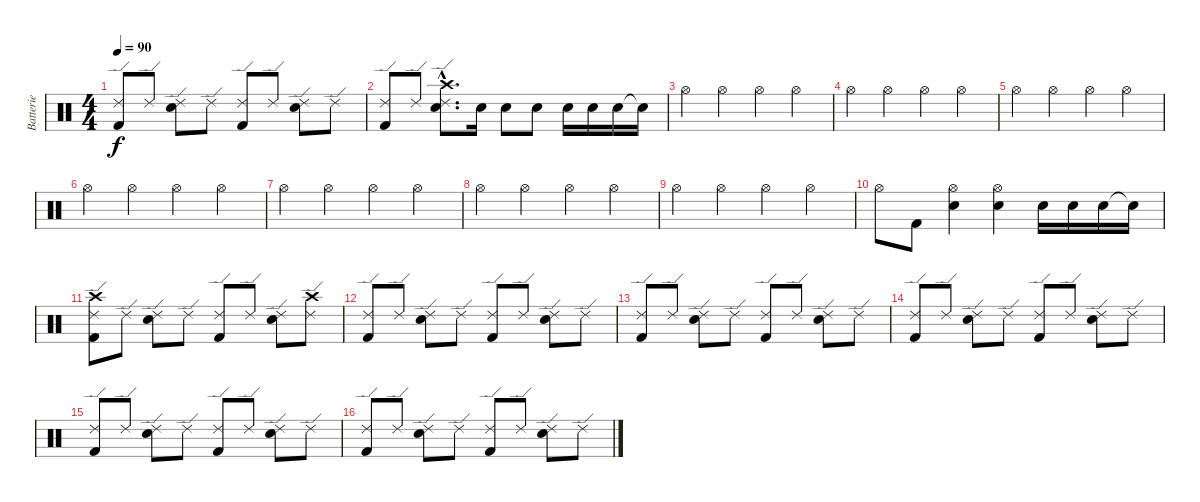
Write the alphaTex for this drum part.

\track ("Batterie" "Batterie") {instrument percussion}
\staff {score}
\articulation defaults
\ts (4 4)
\tempo 90
\clef neutral
\ks c
("Ride (edge) 2" "Kick (hit) 2").8{dy f} "Ride (edge) 2".8 ("Ride (edge) 2" "Electric Snare (hit)").8 "Ride (edge) 2".8 ("Ride (edge) 2" "Kick (hit) 2").8 "Ride (edge) 2".8 ("Ride (edge) 2" "Electric Snare (hit)").8 "Ride (edge) 2".8 |
("Ride (edge) 2" "Kick (hit) 2").8 "Ride (edge) 2".8 ("Ride (edge) 2"{hac} "Electric Snare (hit)"{hac} "Crash high (hit)"{hac}).8{d} "Electric Snare (hit)".16 "Electric Snare (hit)".8 "Electric Snare (hit)".8 "Electric Snare (hit)".16 "Electric Snare (hit)".16 "Electric Snare (hit)".16 "Snare (hit)"{t}.16 |
"Hi-Hat (open)".4 "Hi-Hat (open)".4 "Hi-Hat (open)".4 "Hi-Hat (open)".4 |
"Hi-Hat (open)".4 "Hi-Hat (open)".4 "Hi-Hat (open)".4 "Hi-Hat (open)".4 |
"Hi-Hat (open)".4 "Hi-Hat (open)".4 "Hi-Hat (open)".4 "Hi-Hat (open)".4 |
"Hi-Hat (open)".4 "Hi-Hat (open)".4 "Hi-Hat (open)".4 "Hi-Hat (open)".4 |
"Hi-Hat (open)".4 "Hi-Hat (open)".4 "Hi-Hat (open)".4 "Hi-Hat (open)".4 |
"Hi-Hat (open)".4 "Hi-Hat (open)".4 "Hi-Hat (open)".4 "Hi-Hat (open)".4 |
"Hi-Hat (open)".4 "Hi-Hat (open)".4 "Hi-Hat (open)".4 "Hi-Hat (open)".4 |
"Hi-Hat (open)".8 "Kick (hit) 2".8 ("Hi-Hat (open)" "Electric Snare (hit)").4 ("Hi-Hat (open)" "Electric Snare (hit)").4 "Electric Snare (hit)".16 "Electric Snare (hit)".16 "Electric Snare (hit)".16 "Snare (hit)"{t}.16 |
("Ride (edge) 2" "Kick (hit) 2" "Crash high (hit)").8 "Ride (edge) 2".8 ("Ride (edge) 2" "Electric Snare (hit)").8 "Ride (edge) 2".8 ("Ride (edge) 2" "Kick (hit) 2").8 "Ride (edge) 2".8 ("Ride (edge) 2" "Electric Snare (hit)").8 ("Ride (edge) 2" "Crash high (hit)").8 |
("Ride (edge) 2" "Kick (hit) 2").8 "Ride (edge) 2".8 ("Ride (edge) 2" "Electric Snare (hit)").8 "Ride (edge) 2".8 ("Ride (edge) 2" "Kick (hit) 2").8 "Ride (edge) 2".8 ("Ride (edge) 2" "Electric Snare (hit)").8 "Ride (edge) 2".8 |
("Ride (edge) 2" "Kick (hit) 2").8 "Ride (edge) 2".8 ("Ride (edge) 2" "Electric Snare (hit)").8 "Ride (edge) 2".8 ("Ride (edge) 2" "Kick (hit) 2").8 "Ride (edge) 2".8 ("Ride (edge) 2" "Electric Snare (hit)").8 "Ride (edge) 2".8 |
("Ride (edge) 2" "Kick (hit) 2").8 "Ride (edge) 2".8 ("Ride (edge) 2" "Electric Snare (hit)").8 "Ride (edge) 2".8 ("Ride (edge) 2" "Kick (hit) 2").8 "Ride (edge) 2".8 ("Ride (edge) 2" "Electric Snare (hit)").8 "Ride (edge) 2".8 |
("Ride (edge) 2" "Kick (hit) 2").8 "Ride (edge) 2".8 ("Ride (edge) 2" "Electric Snare (hit)").8 "Ride (edge) 2".8 ("Ride (edge) 2" "Kick (hit) 2").8 "Ride (edge) 2".8 ("Ride (edge) 2" "Electric Snare (hit)").8 "Ride (edge) 2".8 |
("Ride (edge) 2" "Kick (hit) 2").8 "Ride (edge) 2".8 ("Ride (edge) 2" "Electric Snare (hit)").8 "Ride (edge) 2".8 ("Ride (edge) 2" "Kick (hit) 2").8 "Ride (edge) 2".8 ("Ride (edge) 2" "Electric Snare (hit)").8 "Ride (edge) 2".8
